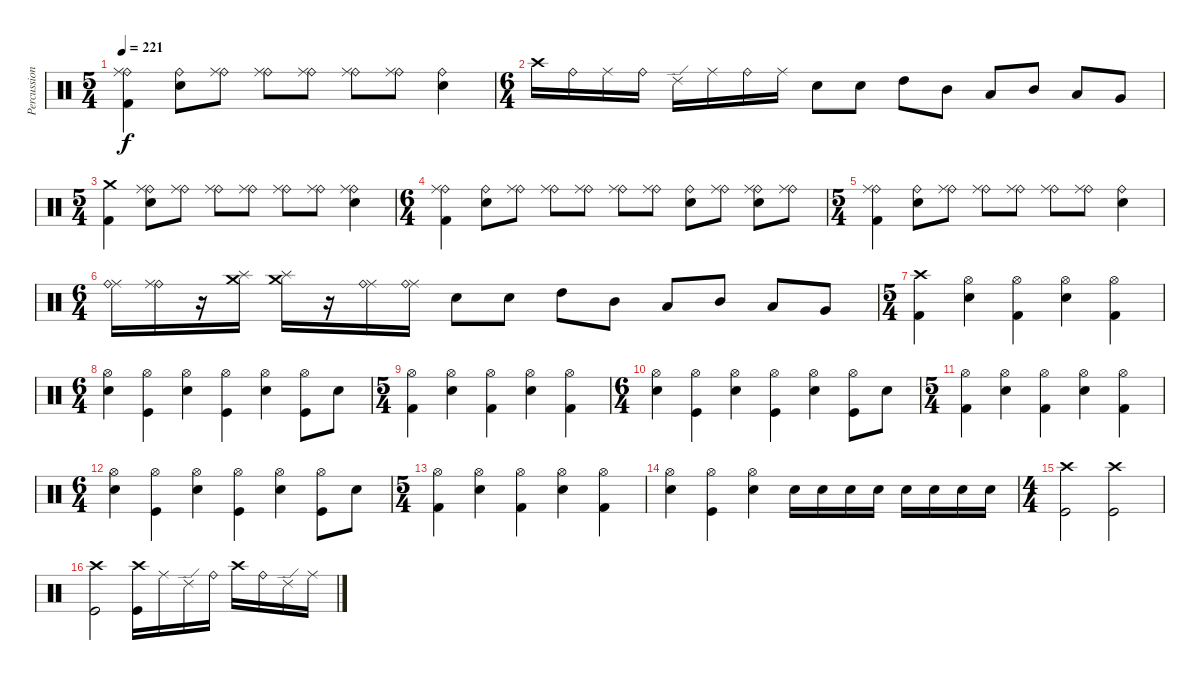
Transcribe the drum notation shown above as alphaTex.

\track ("Percussion" "Percussion") {instrument percussion}
\staff {score}
\articulation defaults
\ts (5 4)
\tempo 221
\clef neutral
\ks c
("Ride (bell)" "Ride (middle)" "Kick (hit) 2").4{dy f} ("Ride (bell)" "Electric Snare (hit)").8 ("Ride (bell)" "Ride (middle)").8 ("Ride (bell)" "Ride (middle)").8 ("Ride (bell)" "Ride (middle)").8 ("Ride (bell)" "Ride (middle)").8 ("Ride (bell)" "Ride (middle)").8 ("Ride (bell)" "Electric Snare (hit)").4 |
\ts (6 4)
"Crash high (hit)".16 "Ride (bell)".16 "Ride (middle)".16 "Ride (bell)".16 "Ride (edge) 2".16 "Ride (middle)".16 "Ride (bell)".16 "Ride (middle)".16 "Electric Snare (hit)".8 "Electric Snare (hit)".8 "High Tom (hit)".8 "Mid Tom (hit)".8 "Low Tom (hit)".8 "Mid Tom (hit)".8 "Low Tom (hit)".8 "Very Low Tom (hit)".8 |
\ts (5 4)
("Crash medium (hit)" "Kick (hit) 2").4 ("Ride (bell)" "Ride (middle)" "Electric Snare (hit)").8 ("Ride (bell)" "Ride (middle)").8 ("Ride (bell)" "Ride (middle)").8 ("Ride (bell)" "Ride (middle)").8 ("Ride (bell)" "Ride (middle)").8 ("Ride (bell)" "Ride (middle)").8 ("Ride (bell)" "Ride (middle)" "Electric Snare (hit)").4 |
\ts (6 4)
("Ride (bell)" "Ride (middle)" "Kick (hit) 2").4 ("Ride (bell)" "Electric Snare (hit)").8 ("Ride (bell)" "Ride (middle)").8 ("Ride (bell)" "Ride (middle)").8 ("Ride (bell)" "Ride (middle)").8 ("Ride (bell)" "Ride (middle)").8 ("Ride (bell)" "Ride (middle)").8 ("Ride (bell)" "Electric Snare (hit)").8 ("Ride (bell)" "Ride (middle)").8 ("Ride (bell)" "Ride (middle)" "Electric Snare (hit)").8 ("Ride (bell)" "Ride (middle)").8 |
\ts (5 4)
("Ride (bell)" "Ride (middle)" "Kick (hit) 2").4 ("Ride (bell)" "Electric Snare (hit)").8 ("Ride (bell)" "Ride (middle)").8 ("Ride (bell)" "Ride (middle)").8 ("Ride (bell)" "Ride (middle)").8 ("Ride (bell)" "Ride (middle)").8 ("Ride (bell)" "Ride (middle)").8 ("Ride (bell)" "Electric Snare (hit)").4 |
\ts (6 4)
("Ride (middle)" "Ride (bell)").16 ("Ride (bell)" "Ride (middle)").16 r.16 ("Splash (hit)" "Crash medium (hit)").16 ("Splash (hit)" "Crash medium (hit)").16 r.16 ("Ride (middle)" "Ride (bell)").16 ("Ride (middle)" "Ride (bell)").16 "Electric Snare (hit)".8 "Electric Snare (hit)".8 "High Tom (hit)".8 "Mid Tom (hit)".8 "Low Tom (hit)".8 "Mid Tom (hit)".8 "Low Tom (hit)".8 "Very Low Tom (hit)".8 |
\ts (5 4)
("Crash high (hit)" "Kick (hit) 2").4 ("Hi-Hat (open)" "Electric Snare (hit)").4 ("Hi-Hat (open)" "Kick (hit) 2").4 ("Hi-Hat (open)" "Electric Snare (hit)").4 ("Hi-Hat (open)" "Kick (hit) 2").4 |
\ts (6 4)
("Hi-Hat (open)" "Electric Snare (hit)").4 ("Hi-Hat (open)" "Kick (hit)").4 ("Hi-Hat (open)" "Electric Snare (hit)").4 ("Hi-Hat (open)" "Kick (hit)").4 ("Hi-Hat (open)" "Electric Snare (hit)").4 ("Hi-Hat (open)" "Kick (hit)").8 "Electric Snare (hit)".8 |
\ts (5 4)
("Hi-Hat (open)" "Kick (hit) 2").4 ("Hi-Hat (open)" "Electric Snare (hit)").4 ("Hi-Hat (open)" "Kick (hit) 2").4 ("Hi-Hat (open)" "Electric Snare (hit)").4 ("Hi-Hat (open)" "Kick (hit) 2").4 |
\ts (6 4)
("Hi-Hat (open)" "Electric Snare (hit)").4 ("Hi-Hat (open)" "Kick (hit)").4 ("Hi-Hat (open)" "Electric Snare (hit)").4 ("Hi-Hat (open)" "Kick (hit)").4 ("Hi-Hat (open)" "Electric Snare (hit)").4 ("Hi-Hat (open)" "Kick (hit)").8 "Electric Snare (hit)".8 |
\ts (5 4)
("Hi-Hat (open)" "Kick (hit) 2").4 ("Hi-Hat (open)" "Electric Snare (hit)").4 ("Hi-Hat (open)" "Kick (hit) 2").4 ("Hi-Hat (open)" "Electric Snare (hit)").4 ("Hi-Hat (open)" "Kick (hit) 2").4 |
\ts (6 4)
("Hi-Hat (open)" "Electric Snare (hit)").4 ("Hi-Hat (open)" "Kick (hit)").4 ("Hi-Hat (open)" "Electric Snare (hit)").4 ("Hi-Hat (open)" "Kick (hit)").4 ("Hi-Hat (open)" "Electric Snare (hit)").4 ("Hi-Hat (open)" "Kick (hit)").8 "Electric Snare (hit)".8 |
\ts (5 4)
("Hi-Hat (open)" "Kick (hit) 2").4 ("Hi-Hat (open)" "Electric Snare (hit)").4 ("Hi-Hat (open)" "Kick (hit) 2").4 ("Hi-Hat (open)" "Electric Snare (hit)").4 ("Hi-Hat (open)" "Kick (hit) 2").4 |
("Hi-Hat (open)" "Electric Snare (hit)").4 ("Hi-Hat (open)" "Kick (hit)").4 ("Hi-Hat (open)" "Electric Snare (hit)").4 "Electric Snare (hit)".16 "Electric Snare (hit)".16 "Electric Snare (hit)".16 "Electric Snare (hit)".16 "Electric Snare (hit)".16 "Electric Snare (hit)".16 "Electric Snare (hit)".16 "Electric Snare (hit)".16 |
\ts (4 4)
("Crash high (hit)" "Kick (hit)").2 ("Crash high (hit)" "Kick (hit)").2 |
("Crash high (hit)" "Kick (hit)").2 ("Crash high (hit)" "Kick (hit)").16 "Ride (middle)".16 "Ride (edge) 2".16 "Ride (bell)".16 "Crash high (hit)".16 "Ride (bell)".16 "Ride (edge) 2".16 "Ride (middle)".16
